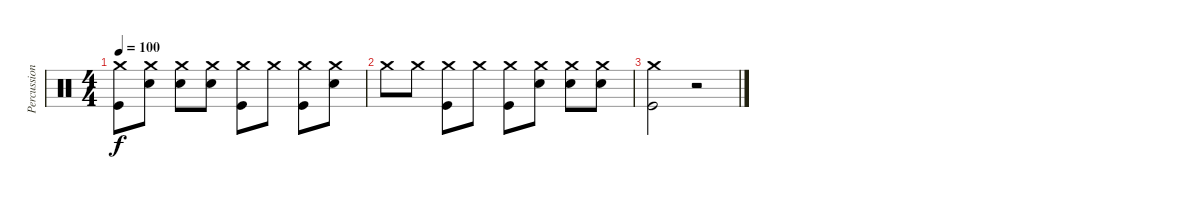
\track ("Percussion" "Percussion") {instrument percussion}
\staff {score}
\articulation defaults
\ts (4 4)
\tempo 100
\clef neutral
\ks c
("Crash medium (hit)" "Kick (hit)").8{dy f} ("Crash medium (hit)" "Electric Snare (hit)").8 ("Crash medium (hit)" "Electric Snare (hit)").8 ("Crash medium (hit)" "Electric Snare (hit)").8 ("Crash medium (hit)" "Kick (hit)").8 "Crash medium (hit)".8 ("Crash medium (hit)" "Kick (hit)").8 ("Crash medium (hit)" "Electric Snare (hit)").8 |
"Crash medium (hit)".8 "Crash medium (hit)".8 ("Crash medium (hit)" "Kick (hit)").8 "Crash medium (hit)".8 ("Crash medium (hit)" "Kick (hit)").8 ("Crash medium (hit)" "Electric Snare (hit)").8 ("Crash medium (hit)" "Electric Snare (hit)").8 ("Crash medium (hit)" "Electric Snare (hit)").8 |
("Crash medium (hit)" "Kick (hit)").2 r.2
